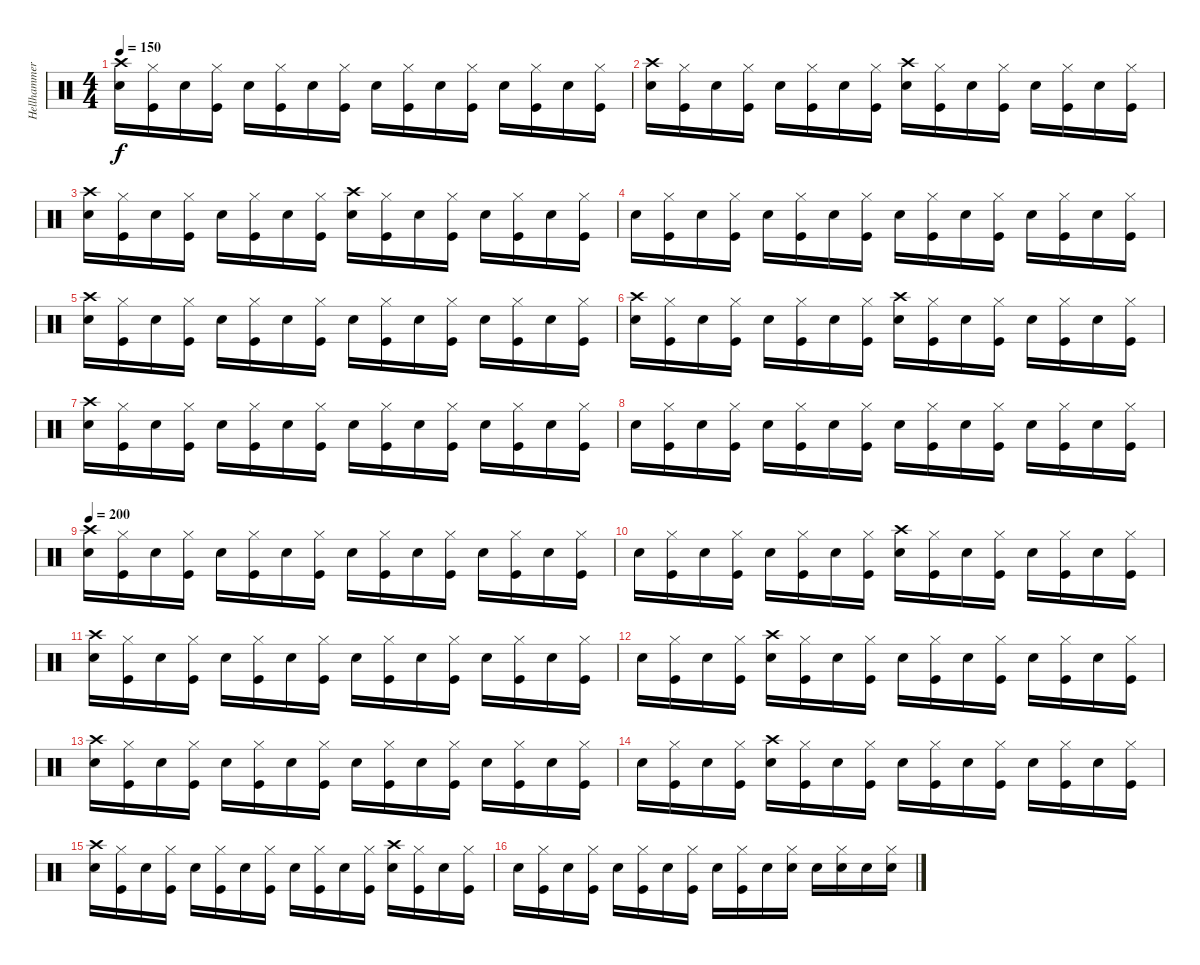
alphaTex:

\track ("Hellhammer" "Hellhammer") {instrument percussion}
\staff {score}
\articulation defaults
\ts (4 4)
\tempo 150
\clef neutral
\ks c
("Snare (hit) 2" "Crash high (hit)").16{dy f} ("Kick (hit)" "Hi-Hat (closed)").16 "Snare (hit) 2".16 ("Kick (hit)" "Hi-Hat (closed)").16 "Snare (hit) 2".16 ("Kick (hit)" "Hi-Hat (closed)").16 "Snare (hit) 2".16 ("Kick (hit)" "Hi-Hat (closed)").16 "Snare (hit) 2".16 ("Kick (hit)" "Hi-Hat (closed)").16 "Snare (hit) 2".16 ("Kick (hit)" "Hi-Hat (closed)").16 "Snare (hit) 2".16 ("Kick (hit)" "Hi-Hat (closed)").16 "Snare (hit) 2".16 ("Kick (hit)" "Hi-Hat (closed)").16 |
("Snare (hit) 2" "Crash high (hit)").16 ("Kick (hit)" "Hi-Hat (closed)").16 "Snare (hit) 2".16 ("Kick (hit)" "Hi-Hat (closed)").16 "Snare (hit) 2".16 ("Kick (hit)" "Hi-Hat (closed)").16 "Snare (hit) 2".16 ("Kick (hit)" "Hi-Hat (closed)").16 ("Snare (hit) 2" "Crash high (hit)").16 ("Kick (hit)" "Hi-Hat (closed)").16 "Snare (hit) 2".16 ("Kick (hit)" "Hi-Hat (closed)").16 "Snare (hit) 2".16 ("Kick (hit)" "Hi-Hat (closed)").16 "Snare (hit) 2".16 ("Kick (hit)" "Hi-Hat (closed)").16 |
("Snare (hit) 2" "Crash high (hit)").16 ("Kick (hit)" "Hi-Hat (closed)").16 "Snare (hit) 2".16 ("Kick (hit)" "Hi-Hat (closed)").16 "Snare (hit) 2".16 ("Kick (hit)" "Hi-Hat (closed)").16 "Snare (hit) 2".16 ("Kick (hit)" "Hi-Hat (closed)").16 ("Snare (hit) 2" "Crash high (hit)").16 ("Kick (hit)" "Hi-Hat (closed)").16 "Snare (hit) 2".16 ("Kick (hit)" "Hi-Hat (closed)").16 "Snare (hit) 2".16 ("Kick (hit)" "Hi-Hat (closed)").16 "Snare (hit) 2".16 ("Kick (hit)" "Hi-Hat (closed)").16 |
"Snare (hit) 2".16 ("Kick (hit)" "Hi-Hat (closed)").16 "Snare (hit) 2".16 ("Kick (hit)" "Hi-Hat (closed)").16 "Snare (hit) 2".16 ("Kick (hit)" "Hi-Hat (closed)").16 "Snare (hit) 2".16 ("Kick (hit)" "Hi-Hat (closed)").16 "Snare (hit) 2".16 ("Kick (hit)" "Hi-Hat (closed)").16 "Snare (hit) 2".16 ("Kick (hit)" "Hi-Hat (closed)").16 "Snare (hit) 2".16 ("Kick (hit)" "Hi-Hat (closed)").16 "Snare (hit) 2".16 ("Kick (hit)" "Hi-Hat (closed)").16 |
("Snare (hit) 2" "Crash high (hit)").16 ("Kick (hit)" "Hi-Hat (closed)").16 "Snare (hit) 2".16 ("Kick (hit)" "Hi-Hat (closed)").16 "Snare (hit) 2".16 ("Kick (hit)" "Hi-Hat (closed)").16 "Snare (hit) 2".16 ("Kick (hit)" "Hi-Hat (closed)").16 "Snare (hit) 2".16 ("Kick (hit)" "Hi-Hat (closed)").16 "Snare (hit) 2".16 ("Kick (hit)" "Hi-Hat (closed)").16 "Snare (hit) 2".16 ("Kick (hit)" "Hi-Hat (closed)").16 "Snare (hit) 2".16 ("Kick (hit)" "Hi-Hat (closed)").16 |
("Snare (hit) 2" "Crash high (hit)").16 ("Kick (hit)" "Hi-Hat (closed)").16 "Snare (hit) 2".16 ("Kick (hit)" "Hi-Hat (closed)").16 "Snare (hit) 2".16 ("Kick (hit)" "Hi-Hat (closed)").16 "Snare (hit) 2".16 ("Kick (hit)" "Hi-Hat (closed)").16 ("Snare (hit) 2" "Crash high (hit)").16 ("Kick (hit)" "Hi-Hat (closed)").16 "Snare (hit) 2".16 ("Kick (hit)" "Hi-Hat (closed)").16 "Snare (hit) 2".16 ("Kick (hit)" "Hi-Hat (closed)").16 "Snare (hit) 2".16 ("Kick (hit)" "Hi-Hat (closed)").16 |
("Snare (hit) 2" "Crash high (hit)").16 ("Kick (hit)" "Hi-Hat (closed)").16 "Snare (hit) 2".16 ("Kick (hit)" "Hi-Hat (closed)").16 "Snare (hit) 2".16 ("Kick (hit)" "Hi-Hat (closed)").16 "Snare (hit) 2".16 ("Kick (hit)" "Hi-Hat (closed)").16 "Snare (hit) 2".16 ("Kick (hit)" "Hi-Hat (closed)").16 "Snare (hit) 2".16 ("Kick (hit)" "Hi-Hat (closed)").16 "Snare (hit) 2".16 ("Kick (hit)" "Hi-Hat (closed)").16 "Snare (hit) 2".16 ("Kick (hit)" "Hi-Hat (closed)").16 |
"Snare (hit) 2".16 ("Kick (hit)" "Hi-Hat (closed)").16 "Snare (hit) 2".16 ("Kick (hit)" "Hi-Hat (closed)").16 "Snare (hit) 2".16 ("Kick (hit)" "Hi-Hat (closed)").16 "Snare (hit) 2".16 ("Kick (hit)" "Hi-Hat (closed)").16 "Snare (hit) 2".16 ("Kick (hit)" "Hi-Hat (closed)").16 "Snare (hit) 2".16 ("Kick (hit)" "Hi-Hat (closed)").16 "Snare (hit) 2".16 ("Kick (hit)" "Hi-Hat (closed)").16 "Snare (hit) 2".16 ("Kick (hit)" "Hi-Hat (closed)").16 |
\tempo 200
("Snare (hit) 2" "Crash high (hit)").16 ("Kick (hit)" "Hi-Hat (closed)").16 "Snare (hit) 2".16 ("Kick (hit)" "Hi-Hat (closed)").16 "Snare (hit) 2".16 ("Kick (hit)" "Hi-Hat (closed)").16 "Snare (hit) 2".16 ("Kick (hit)" "Hi-Hat (closed)").16 "Snare (hit) 2".16 ("Kick (hit)" "Hi-Hat (closed)").16 "Snare (hit) 2".16 ("Kick (hit)" "Hi-Hat (closed)").16 "Snare (hit) 2".16 ("Kick (hit)" "Hi-Hat (closed)").16 "Snare (hit) 2".16 ("Kick (hit)" "Hi-Hat (closed)").16 |
"Snare (hit) 2".16 ("Kick (hit)" "Hi-Hat (closed)").16 "Snare (hit) 2".16 ("Kick (hit)" "Hi-Hat (closed)").16 "Snare (hit) 2".16 ("Kick (hit)" "Hi-Hat (closed)").16 "Snare (hit) 2".16 ("Kick (hit)" "Hi-Hat (closed)").16 ("Snare (hit) 2" "Crash high (hit)").16 ("Kick (hit)" "Hi-Hat (closed)").16 "Snare (hit) 2".16 ("Kick (hit)" "Hi-Hat (closed)").16 "Snare (hit) 2".16 ("Kick (hit)" "Hi-Hat (closed)").16 "Snare (hit) 2".16 ("Kick (hit)" "Hi-Hat (closed)").16 |
("Snare (hit) 2" "Crash high (hit)").16 ("Kick (hit)" "Hi-Hat (closed)").16 "Snare (hit) 2".16 ("Kick (hit)" "Hi-Hat (closed)").16 "Snare (hit) 2".16 ("Kick (hit)" "Hi-Hat (closed)").16 "Snare (hit) 2".16 ("Kick (hit)" "Hi-Hat (closed)").16 "Snare (hit) 2".16 ("Kick (hit)" "Hi-Hat (closed)").16 "Snare (hit) 2".16 ("Kick (hit)" "Hi-Hat (closed)").16 "Snare (hit) 2".16 ("Kick (hit)" "Hi-Hat (closed)").16 "Snare (hit) 2".16 ("Kick (hit)" "Hi-Hat (closed)").16 |
"Snare (hit) 2".16 ("Kick (hit)" "Hi-Hat (closed)").16 "Snare (hit) 2".16 ("Kick (hit)" "Hi-Hat (closed)").16 ("Snare (hit) 2" "Crash high (hit)").16 ("Kick (hit)" "Hi-Hat (closed)").16 "Snare (hit) 2".16 ("Kick (hit)" "Hi-Hat (closed)").16 "Snare (hit) 2".16 ("Kick (hit)" "Hi-Hat (closed)").16 "Snare (hit) 2".16 ("Kick (hit)" "Hi-Hat (closed)").16 "Snare (hit) 2".16 ("Kick (hit)" "Hi-Hat (closed)").16 "Snare (hit) 2".16 ("Kick (hit)" "Hi-Hat (closed)").16 |
("Snare (hit) 2" "Crash high (hit)").16 ("Kick (hit)" "Hi-Hat (closed)").16 "Snare (hit) 2".16 ("Kick (hit)" "Hi-Hat (closed)").16 "Snare (hit) 2".16 ("Kick (hit)" "Hi-Hat (closed)").16 "Snare (hit) 2".16 ("Kick (hit)" "Hi-Hat (closed)").16 "Snare (hit) 2".16 ("Kick (hit)" "Hi-Hat (closed)").16 "Snare (hit) 2".16 ("Kick (hit)" "Hi-Hat (closed)").16 "Snare (hit) 2".16 ("Kick (hit)" "Hi-Hat (closed)").16 "Snare (hit) 2".16 ("Kick (hit)" "Hi-Hat (closed)").16 |
"Snare (hit) 2".16 ("Kick (hit)" "Hi-Hat (closed)").16 "Snare (hit) 2".16 ("Kick (hit)" "Hi-Hat (closed)").16 ("Snare (hit) 2" "Crash high (hit)").16 ("Kick (hit)" "Hi-Hat (closed)").16 "Snare (hit) 2".16 ("Kick (hit)" "Hi-Hat (closed)").16 "Snare (hit) 2".16 ("Kick (hit)" "Hi-Hat (closed)").16 "Snare (hit) 2".16 ("Kick (hit)" "Hi-Hat (closed)").16 "Snare (hit) 2".16 ("Kick (hit)" "Hi-Hat (closed)").16 "Snare (hit) 2".16 ("Kick (hit)" "Hi-Hat (closed)").16 |
("Snare (hit) 2" "Crash high (hit)").16 ("Kick (hit)" "Hi-Hat (closed)").16 "Snare (hit) 2".16 ("Kick (hit)" "Hi-Hat (closed)").16 "Snare (hit) 2".16 ("Kick (hit)" "Hi-Hat (closed)").16 "Snare (hit) 2".16 ("Kick (hit)" "Hi-Hat (closed)").16 "Snare (hit) 2".16 ("Kick (hit)" "Hi-Hat (closed)").16 "Snare (hit) 2".16 ("Kick (hit)" "Hi-Hat (closed)").16 ("Snare (hit) 2" "Crash high (hit)").16 ("Kick (hit)" "Hi-Hat (closed)").16 "Snare (hit) 2".16 ("Kick (hit)" "Hi-Hat (closed)").16 |
"Snare (hit) 2".16 ("Kick (hit)" "Hi-Hat (closed)").16 "Snare (hit) 2".16 ("Kick (hit)" "Hi-Hat (closed)").16 "Snare (hit) 2".16 ("Kick (hit)" "Hi-Hat (closed)").16 "Snare (hit) 2".16 ("Kick (hit)" "Hi-Hat (closed)").16 "Snare (hit) 2".16 ("Kick (hit)" "Hi-Hat (closed)").16 "Snare (hit) 2".16 ("Snare (hit) 2" "Hi-Hat (closed)").16 "Snare (hit) 2".16 ("Snare (hit) 2" "Hi-Hat (closed)").16 "Snare (hit) 2".16 ("Snare (hit) 2" "Hi-Hat (closed)").16
